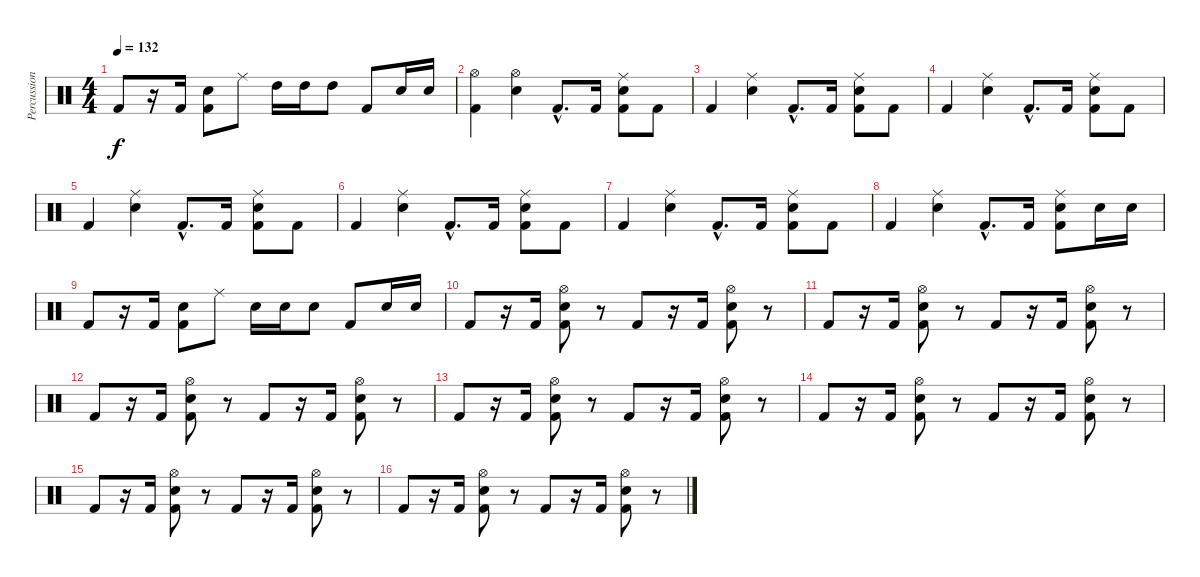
\track ("Percussion" "Percussion") {instrument percussion}
\staff {score}
\articulation defaults
\ts (4 4)
\tempo 132
\clef neutral
\ks c "Kick (hit) 2".8{dy f}
r.16 "Kick (hit) 2".16 ("Snare (hit) 2" "Kick (hit) 2").8 "Ride (middle)".8 "High Tom (hit)".16 "High Tom (hit)".16 "High Tom (hit)".8 "Kick (hit) 2".8 "Snare (hit) 2".16 "Snare (hit) 2".16 |
("Hi-Hat (open)" "Kick (hit) 2").4 ("Hi-Hat (open)" "Snare (hit) 2").4 "Kick (hit) 2"{hac}.8{d} "Kick (hit) 2".16 ("Ride (middle)" "Snare (hit) 2" "Kick (hit) 2").8 "Kick (hit) 2".8 |
"Kick (hit) 2".4 ("Ride (middle)" "Snare (hit) 2").4 "Kick (hit) 2"{hac}.8{d} "Kick (hit) 2".16 ("Ride (middle)" "Snare (hit) 2" "Kick (hit) 2").8 "Kick (hit) 2".8 |
"Kick (hit) 2".4 ("Ride (middle)" "Snare (hit) 2").4 "Kick (hit) 2"{hac}.8{d} "Kick (hit) 2".16 ("Ride (middle)" "Snare (hit) 2" "Kick (hit) 2").8 "Kick (hit) 2".8 |
"Kick (hit) 2".4 ("Ride (middle)" "Snare (hit) 2").4 "Kick (hit) 2"{hac}.8{d} "Kick (hit) 2".16 ("Ride (middle)" "Snare (hit) 2" "Kick (hit) 2").8 "Kick (hit) 2".8 |
"Kick (hit) 2".4 ("Ride (middle)" "Snare (hit) 2").4 "Kick (hit) 2"{hac}.8{d} "Kick (hit) 2".16 ("Ride (middle)" "Snare (hit) 2" "Kick (hit) 2").8 "Kick (hit) 2".8 |
"Kick (hit) 2".4 ("Ride (middle)" "Snare (hit) 2").4 "Kick (hit) 2"{hac}.8{d} "Kick (hit) 2".16 ("Ride (middle)" "Snare (hit) 2" "Kick (hit) 2").8 "Kick (hit) 2".8 |
"Kick (hit) 2".4 ("Ride (middle)" "Snare (hit) 2").4 "Kick (hit) 2"{hac}.8{d} "Kick (hit) 2".16 ("Ride (middle)" "Snare (hit) 2" "Kick (hit) 2").8 "Electric Snare (hit)".16 "Electric Snare (hit)".16 |
"Kick (hit) 2".8 r.16 "Kick (hit) 2".16 ("Snare (hit) 2" "Kick (hit) 2").8 "Ride (middle)".8 "Electric Snare (hit)".16 "Electric Snare (hit)".16 "Electric Snare (hit)".8 "Kick (hit) 2".8 "Snare (hit) 2".16 "Snare (hit) 2".16 |
"Kick (hit) 2".8 r.16 "Kick (hit) 2".16 ("Hi-Hat (open)" "Snare (hit) 2" "Kick (hit) 2").8 r.8 "Kick (hit) 2".8 r.16 "Kick (hit) 2".16 ("Hi-Hat (open)" "Snare (hit) 2" "Kick (hit) 2").8 r.8 |
"Kick (hit) 2".8 r.16 "Kick (hit) 2".16 ("Hi-Hat (open)" "Snare (hit) 2" "Kick (hit) 2").8 r.8 "Kick (hit) 2".8 r.16 "Kick (hit) 2".16 ("Hi-Hat (open)" "Snare (hit) 2" "Kick (hit) 2").8 r.8 |
"Kick (hit) 2".8 r.16 "Kick (hit) 2".16 ("Hi-Hat (open)" "Snare (hit) 2" "Kick (hit) 2").8 r.8 "Kick (hit) 2".8 r.16 "Kick (hit) 2".16 ("Hi-Hat (open)" "Snare (hit) 2" "Kick (hit) 2").8 r.8 |
"Kick (hit) 2".8 r.16 "Kick (hit) 2".16 ("Hi-Hat (open)" "Snare (hit) 2" "Kick (hit) 2").8 r.8 "Kick (hit) 2".8 r.16 "Kick (hit) 2".16 ("Hi-Hat (open)" "Snare (hit) 2" "Kick (hit) 2").8 r.8 |
"Kick (hit) 2".8 r.16 "Kick (hit) 2".16 ("Hi-Hat (open)" "Snare (hit) 2" "Kick (hit) 2").8 r.8 "Kick (hit) 2".8 r.16 "Kick (hit) 2".16 ("Hi-Hat (open)" "Snare (hit) 2" "Kick (hit) 2").8 r.8 |
"Kick (hit) 2".8 r.16 "Kick (hit) 2".16 ("Hi-Hat (open)" "Snare (hit) 2" "Kick (hit) 2").8 r.8 "Kick (hit) 2".8 r.16 "Kick (hit) 2".16 ("Hi-Hat (open)" "Snare (hit) 2" "Kick (hit) 2").8 r.8 |
"Kick (hit) 2".8 r.16 "Kick (hit) 2".16 ("Hi-Hat (open)" "Snare (hit) 2" "Kick (hit) 2").8 r.8 "Kick (hit) 2".8 r.16 "Kick (hit) 2".16 ("Hi-Hat (open)" "Snare (hit) 2" "Kick (hit) 2").8 r.8
